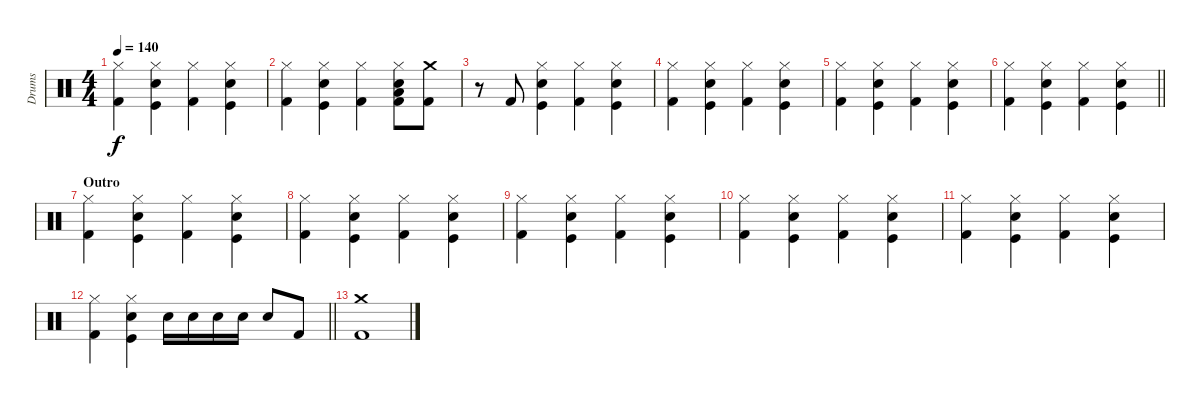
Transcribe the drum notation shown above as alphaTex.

\track ("Drums" "Drums") {instrument percussion}
\staff {score}
\articulation defaults
\ts (4 4)
\tempo 140
\clef neutral
\ks c
("Hi-Hat (closed)" "Kick (hit) 2").4{dy f} ("Hi-Hat (closed)" "Electric Snare (hit)" "Kick (hit)").4 ("Hi-Hat (closed)" "Kick (hit) 2").4 ("Hi-Hat (closed)" "Electric Snare (hit)" "Kick (hit)").4 |
("Hi-Hat (closed)" "Kick (hit) 2").4 ("Hi-Hat (closed)" "Electric Snare (hit)" "Kick (hit)").4 ("Hi-Hat (closed)" "Kick (hit) 2").4 ("Hi-Hat (closed)" "Kick (hit) 2" "Low Floor Tom (hit)" "Electric Snare (hit)").8 ("Crash medium (hit)" "Kick (hit) 2").8 |
r.8 "Kick (hit) 2".8 ("Hi-Hat (closed)" "Electric Snare (hit)" "Kick (hit)").4 ("Hi-Hat (closed)" "Kick (hit) 2").4 ("Hi-Hat (closed)" "Electric Snare (hit)" "Kick (hit)").4 |
("Hi-Hat (closed)" "Kick (hit) 2").4 ("Hi-Hat (closed)" "Electric Snare (hit)" "Kick (hit)").4 ("Hi-Hat (closed)" "Kick (hit) 2").4 ("Hi-Hat (closed)" "Electric Snare (hit)" "Kick (hit)").4 |
("Hi-Hat (closed)" "Kick (hit) 2").4 ("Hi-Hat (closed)" "Electric Snare (hit)" "Kick (hit)").4 ("Hi-Hat (closed)" "Kick (hit) 2").4 ("Hi-Hat (closed)" "Electric Snare (hit)" "Kick (hit)").4 |
\barLineRight lightlight
("Hi-Hat (closed)" "Kick (hit) 2").4 ("Hi-Hat (closed)" "Electric Snare (hit)" "Kick (hit)").4 ("Hi-Hat (closed)" "Kick (hit) 2").4 ("Hi-Hat (closed)" "Electric Snare (hit)" "Kick (hit)").4 |
\section ("" "Outro")
("Hi-Hat (closed)" "Kick (hit) 2").4 ("Hi-Hat (closed)" "Electric Snare (hit)" "Kick (hit)").4 ("Hi-Hat (closed)" "Kick (hit) 2").4 ("Hi-Hat (closed)" "Electric Snare (hit)" "Kick (hit)").4 |
("Hi-Hat (closed)" "Kick (hit) 2").4 ("Hi-Hat (closed)" "Electric Snare (hit)" "Kick (hit)").4 ("Hi-Hat (closed)" "Kick (hit) 2").4 ("Hi-Hat (closed)" "Electric Snare (hit)" "Kick (hit)").4 |
("Hi-Hat (closed)" "Kick (hit) 2").4 ("Hi-Hat (closed)" "Electric Snare (hit)" "Kick (hit)").4 ("Hi-Hat (closed)" "Kick (hit) 2").4 ("Hi-Hat (closed)" "Electric Snare (hit)" "Kick (hit)").4 |
("Hi-Hat (closed)" "Kick (hit) 2").4 ("Hi-Hat (closed)" "Electric Snare (hit)" "Kick (hit)").4 ("Hi-Hat (closed)" "Kick (hit) 2").4 ("Hi-Hat (closed)" "Electric Snare (hit)" "Kick (hit)").4 |
("Hi-Hat (closed)" "Kick (hit) 2").4 ("Hi-Hat (closed)" "Electric Snare (hit)" "Kick (hit)").4 ("Hi-Hat (closed)" "Kick (hit) 2").4 ("Hi-Hat (closed)" "Electric Snare (hit)" "Kick (hit)").4 |
\barLineRight lightlight
("Hi-Hat (closed)" "Kick (hit) 2").4 ("Hi-Hat (closed)" "Electric Snare (hit)" "Kick (hit)").4 "Electric Snare (hit)".16 "Electric Snare (hit)".16 "Electric Snare (hit)".16 "Electric Snare (hit)".16 "Electric Snare (hit)".8 "Kick (hit) 2".8 |
("Crash medium (hit)" "Kick (hit) 2").1
